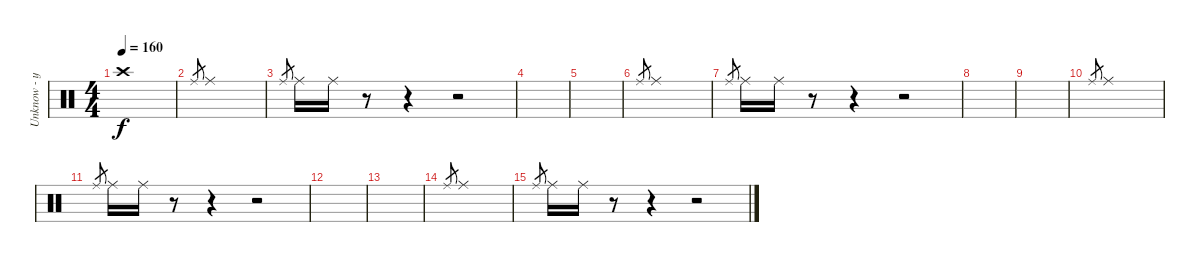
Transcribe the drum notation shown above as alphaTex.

\track ("Unknow - ударные" "Unknow - у") {instrument percussion}
\staff {score}
\articulation defaults
\ts (4 4)
\tempo 160
\clef neutral
\ks c "Crash high (hit)".1{dy f}
|
"Ride (middle)".8{gr} "Ride (middle)".1 |
"Ride (middle)".8{gr} "Ride (middle)".16 "Ride (middle)".16 r.8 r.4 r.2 |
|
|
"Ride (middle)".8{gr} "Ride (middle)".1 |
"Ride (middle)".8{gr} "Ride (middle)".16 "Ride (middle)".16 r.8 r.4 r.2 |
|
|
"Ride (middle)".8{gr} "Ride (middle)".1 |
"Ride (middle)".8{gr} "Ride (middle)".16 "Ride (middle)".16 r.8 r.4 r.2 |
|
|
"Ride (middle)".8{gr} "Ride (middle)".1 |
"Ride (middle)".8{gr} "Ride (middle)".16 "Ride (middle)".16 r.8 r.4 r.2
